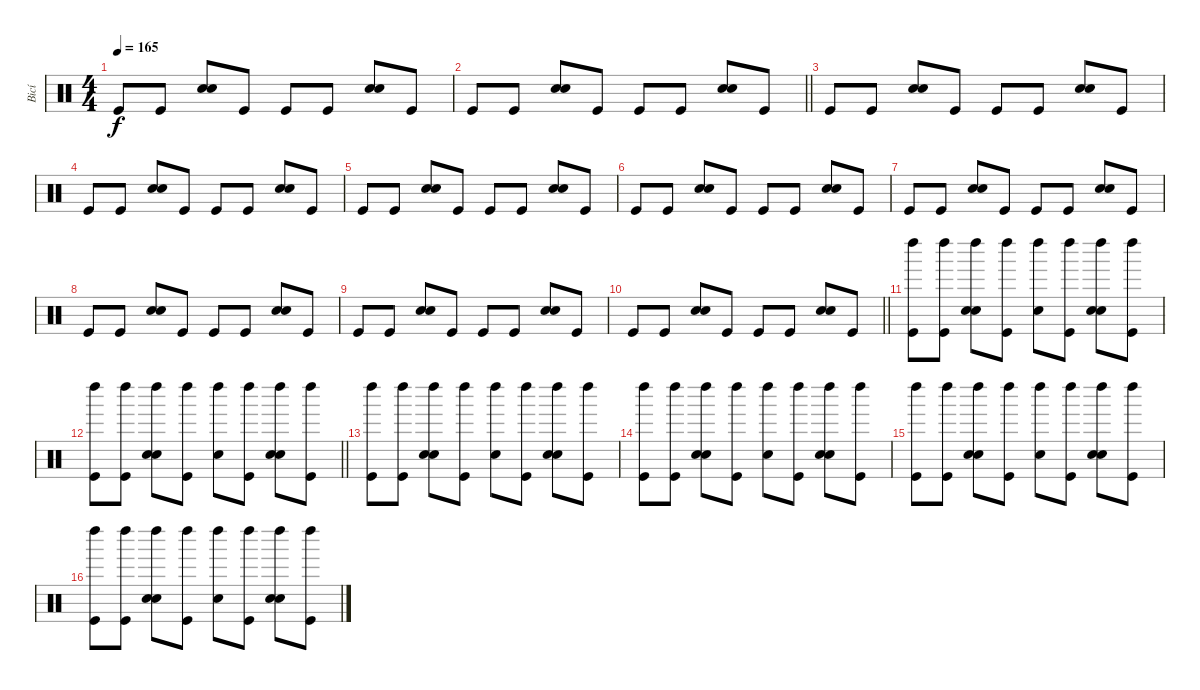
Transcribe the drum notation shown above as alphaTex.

\track ("Bicí" "Bicí") {instrument percussion}
\staff {score}
\articulation defaults
\ts (4 4)
\tempo 165
\clef neutral
\ks c "Kick (hit)".8{dy f} "Kick (hit)".8
("Hand Clap (hit)" "Electric Snare (hit)").8 "Kick (hit)".8 "Kick (hit)".8 "Kick (hit)".8 ("Hand Clap (hit)" "Electric Snare (hit)").8 "Kick (hit)".8 |
\barLineRight lightlight "Kick (hit)".8 "Kick (hit)".8
("Hand Clap (hit)" "Electric Snare (hit)").8 "Kick (hit)".8 "Kick (hit)".8 "Kick (hit)".8 ("Hand Clap (hit)" "Electric Snare (hit)").8 "Kick (hit)".8 |
\section ("" "")
"Kick (hit)".8 "Kick (hit)".8 ("Hand Clap (hit)" "Electric Snare (hit)").8 "Kick (hit)".8 "Kick (hit)".8 "Kick (hit)".8 ("Hand Clap (hit)" "Electric Snare (hit)").8 "Kick (hit)".8 |
"Kick (hit)".8 "Kick (hit)".8 ("Hand Clap (hit)" "Electric Snare (hit)").8 "Kick (hit)".8 "Kick (hit)".8 "Kick (hit)".8 ("Hand Clap (hit)" "Electric Snare (hit)").8 "Kick (hit)".8 |
"Kick (hit)".8 "Kick (hit)".8 ("Hand Clap (hit)" "Electric Snare (hit)").8 "Kick (hit)".8 "Kick (hit)".8 "Kick (hit)".8 ("Hand Clap (hit)" "Electric Snare (hit)").8 "Kick (hit)".8 |
"Kick (hit)".8 "Kick (hit)".8 ("Hand Clap (hit)" "Electric Snare (hit)").8 "Kick (hit)".8 "Kick (hit)".8 "Kick (hit)".8 ("Hand Clap (hit)" "Electric Snare (hit)").8 "Kick (hit)".8 |
"Kick (hit)".8 "Kick (hit)".8 ("Hand Clap (hit)" "Electric Snare (hit)").8 "Kick (hit)".8 "Kick (hit)".8 "Kick (hit)".8 ("Hand Clap (hit)" "Electric Snare (hit)").8 "Kick (hit)".8 |
"Kick (hit)".8 "Kick (hit)".8 ("Hand Clap (hit)" "Electric Snare (hit)").8 "Kick (hit)".8 "Kick (hit)".8 "Kick (hit)".8 ("Hand Clap (hit)" "Electric Snare (hit)").8 "Kick (hit)".8 |
"Kick (hit)".8 "Kick (hit)".8 ("Hand Clap (hit)" "Electric Snare (hit)").8 "Kick (hit)".8 "Kick (hit)".8 "Kick (hit)".8 ("Hand Clap (hit)" "Electric Snare (hit)").8 "Kick (hit)".8 |
\barLineRight lightlight "Kick (hit)".8 "Kick (hit)".8
("Hand Clap (hit)" "Electric Snare (hit)").8 "Kick (hit)".8 "Kick (hit)".8 "Kick (hit)".8 ("Hand Clap (hit)" "Electric Snare (hit)").8 "Kick (hit)".8 |
\section ("" "")
("Left Maraca (hit)" "Kick (hit)").8 ("Left Maraca (hit)" "Kick (hit)").8 ("Left Maraca (hit)" "Hand Clap (hit)" "Electric Snare (hit)").8 ("Left Maraca (hit)" "Kick (hit)").8 ("Left Maraca (hit)" "Snare (hit)").8 ("Left Maraca (hit)" "Kick (hit)").8 ("Left Maraca (hit)" "Hand Clap (hit)" "Electric Snare (hit)").8 ("Left Maraca (hit)" "Kick (hit)").8 |
\barLineRight lightlight
("Left Maraca (hit)" "Kick (hit)").8 ("Left Maraca (hit)" "Kick (hit)").8 ("Left Maraca (hit)" "Hand Clap (hit)" "Electric Snare (hit)").8 ("Left Maraca (hit)" "Kick (hit)").8 ("Left Maraca (hit)" "Snare (hit)").8 ("Left Maraca (hit)" "Kick (hit)").8 ("Left Maraca (hit)" "Hand Clap (hit)" "Electric Snare (hit)").8 ("Left Maraca (hit)" "Kick (hit)").8 |
("Left Maraca (hit)" "Kick (hit)").8 ("Left Maraca (hit)" "Kick (hit)").8 ("Left Maraca (hit)" "Hand Clap (hit)" "Electric Snare (hit)").8 ("Left Maraca (hit)" "Kick (hit)").8 ("Left Maraca (hit)" "Snare (hit)").8 ("Left Maraca (hit)" "Kick (hit)").8 ("Left Maraca (hit)" "Hand Clap (hit)" "Electric Snare (hit)").8 ("Left Maraca (hit)" "Kick (hit)").8 |
("Left Maraca (hit)" "Kick (hit)").8 ("Left Maraca (hit)" "Kick (hit)").8 ("Left Maraca (hit)" "Hand Clap (hit)" "Electric Snare (hit)").8 ("Left Maraca (hit)" "Kick (hit)").8 ("Left Maraca (hit)" "Snare (hit)").8 ("Left Maraca (hit)" "Kick (hit)").8 ("Left Maraca (hit)" "Hand Clap (hit)" "Electric Snare (hit)").8 ("Left Maraca (hit)" "Kick (hit)").8 |
("Left Maraca (hit)" "Kick (hit)").8 ("Left Maraca (hit)" "Kick (hit)").8 ("Left Maraca (hit)" "Hand Clap (hit)" "Electric Snare (hit)").8 ("Left Maraca (hit)" "Kick (hit)").8 ("Left Maraca (hit)" "Snare (hit)").8 ("Left Maraca (hit)" "Kick (hit)").8 ("Left Maraca (hit)" "Hand Clap (hit)" "Electric Snare (hit)").8 ("Left Maraca (hit)" "Kick (hit)").8 |
("Left Maraca (hit)" "Kick (hit)").8 ("Left Maraca (hit)" "Kick (hit)").8 ("Left Maraca (hit)" "Hand Clap (hit)" "Electric Snare (hit)").8 ("Left Maraca (hit)" "Kick (hit)").8 ("Left Maraca (hit)" "Snare (hit)").8 ("Left Maraca (hit)" "Kick (hit)").8 ("Left Maraca (hit)" "Hand Clap (hit)" "Electric Snare (hit)").8 ("Left Maraca (hit)" "Kick (hit)").8
